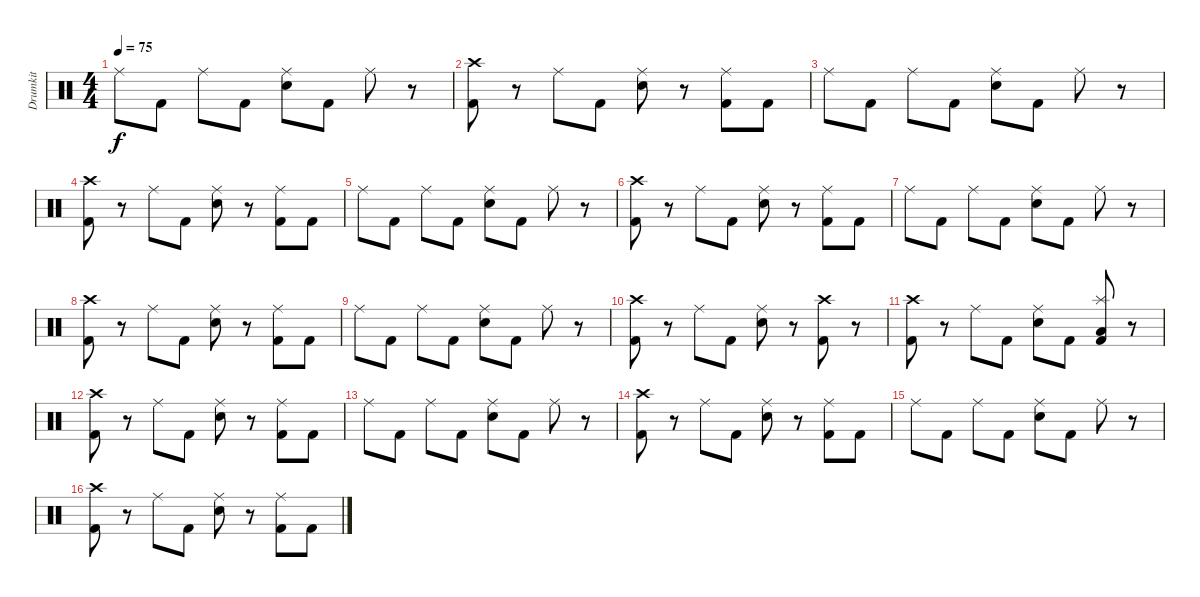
\track ("Drumkit" "Drumkit") {instrument percussion}
\staff {score}
\articulation defaults
\ts (4 4)
\tempo 75
\clef neutral
\ks c "Ride (middle)".8{dy f} "Kick (hit) 2".8 "Ride (middle)".8 "Kick (hit) 2".8
("Ride (middle)" "Snare (hit) 2").8 "Kick (hit) 2".8 "Ride (middle)".8 r.8 |
("Crash high (hit)" "Kick (hit) 2").8 r.8 "Ride (middle)".8 "Kick (hit) 2".8 ("Ride (middle)" "Snare (hit) 2").8 r.8 ("Ride (middle)" "Kick (hit) 2").8 "Kick (hit) 2".8 |
"Ride (middle)".8 "Kick (hit) 2".8 "Ride (middle)".8 "Kick (hit) 2".8 ("Ride (middle)" "Snare (hit) 2").8 "Kick (hit) 2".8 "Ride (middle)".8 r.8 |
("Crash high (hit)" "Kick (hit) 2").8 r.8 "Ride (middle)".8 "Kick (hit) 2".8 ("Ride (middle)" "Snare (hit) 2").8 r.8 ("Ride (middle)" "Kick (hit) 2").8 "Kick (hit) 2".8 |
"Ride (middle)".8 "Kick (hit) 2".8 "Ride (middle)".8 "Kick (hit) 2".8 ("Ride (middle)" "Snare (hit) 2").8 "Kick (hit) 2".8 "Ride (middle)".8 r.8 |
("Crash high (hit)" "Kick (hit) 2").8 r.8 "Ride (middle)".8 "Kick (hit) 2".8 ("Ride (middle)" "Snare (hit) 2").8 r.8 ("Ride (middle)" "Kick (hit) 2").8 "Kick (hit) 2".8 |
"Ride (middle)".8 "Kick (hit) 2".8 "Ride (middle)".8 "Kick (hit) 2".8 ("Ride (middle)" "Snare (hit) 2").8 "Kick (hit) 2".8 "Ride (middle)".8 r.8 |
("Crash high (hit)" "Kick (hit) 2").8 r.8 "Ride (middle)".8 "Kick (hit) 2".8 ("Ride (middle)" "Snare (hit) 2").8 r.8 ("Ride (middle)" "Kick (hit) 2").8 "Kick (hit) 2".8 |
"Ride (middle)".8 "Kick (hit) 2".8 "Ride (middle)".8 "Kick (hit) 2".8 ("Ride (middle)" "Snare (hit) 2").8 "Kick (hit) 2".8 "Ride (middle)".8 r.8 |
("Crash high (hit)" "Kick (hit) 2").8 r.8 "Ride (middle)".8 "Kick (hit) 2".8 ("Ride (middle)" "Snare (hit) 2").8 r.8 ("Crash high (hit)" "Kick (hit) 2").8 r.8 |
("Crash high (hit)" "Kick (hit) 2").8 r.8 "Ride (middle)".8 "Kick (hit) 2".8 ("Ride (middle)" "Snare (hit) 2").8 "Kick (hit) 2".8 ("Splash (hit)" "Low Floor Tom (hit)" "Kick (hit) 2").8 r.8 |
("Crash high (hit)" "Kick (hit) 2").8 r.8 "Ride (middle)".8 "Kick (hit) 2".8 ("Ride (middle)" "Snare (hit) 2").8 r.8 ("Ride (middle)" "Kick (hit) 2").8 "Kick (hit) 2".8 |
"Ride (middle)".8 "Kick (hit) 2".8 "Ride (middle)".8 "Kick (hit) 2".8 ("Ride (middle)" "Snare (hit) 2").8 "Kick (hit) 2".8 "Ride (middle)".8 r.8 |
("Crash high (hit)" "Kick (hit) 2").8 r.8 "Ride (middle)".8 "Kick (hit) 2".8 ("Ride (middle)" "Snare (hit) 2").8 r.8 ("Ride (middle)" "Kick (hit) 2").8 "Kick (hit) 2".8 |
"Ride (middle)".8 "Kick (hit) 2".8 "Ride (middle)".8 "Kick (hit) 2".8 ("Ride (middle)" "Snare (hit) 2").8 "Kick (hit) 2".8 "Ride (middle)".8 r.8 |
("Crash high (hit)" "Kick (hit) 2").8 r.8 "Ride (middle)".8 "Kick (hit) 2".8 ("Ride (middle)" "Snare (hit) 2").8 r.8 ("Ride (middle)" "Kick (hit) 2").8 "Kick (hit) 2".8
